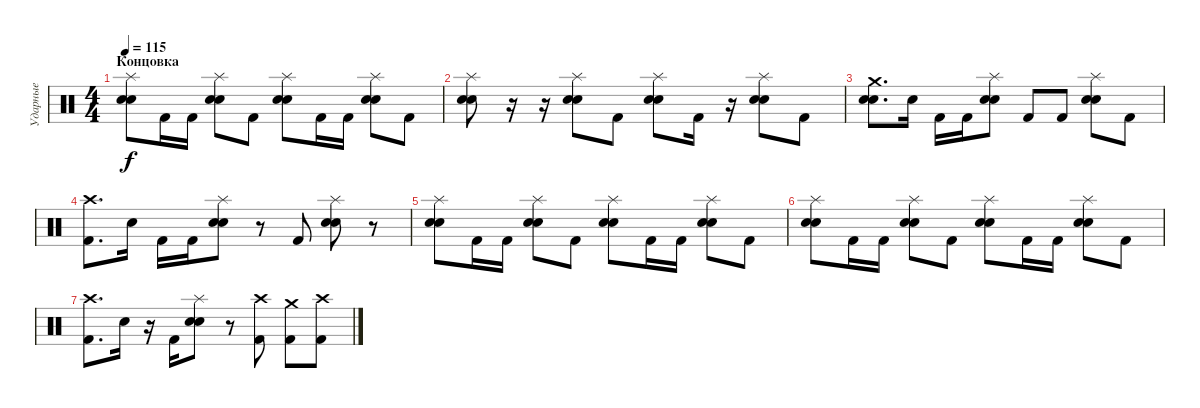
\track ("Ударные" "Ударные") {instrument percussion}
\staff {score}
\articulation defaults
\ts (4 4)
\section ("" "Концовка")
\tempo 115
\clef neutral
\ks c
("Splash (hit)" "Electric Snare (hit)" "Snare (hit) 2").8{dy f} "Kick (hit) 2".16 "Kick (hit) 2".16 ("Splash (hit)" "Electric Snare (hit)" "Snare (hit) 2").8 "Kick (hit) 2".8 ("Splash (hit)" "Electric Snare (hit)" "Snare (hit) 2").8 "Kick (hit) 2".16 "Kick (hit) 2".16 ("Splash (hit)" "Electric Snare (hit)" "Snare (hit) 2").8 "Kick (hit) 2".8 |
("Splash (hit)" "Electric Snare (hit)" "Snare (hit) 2").8 r.16 r.16 ("Splash (hit)" "Electric Snare (hit)" "Snare (hit) 2").8 "Kick (hit) 2".8 ("Splash (hit)" "Electric Snare (hit)" "Snare (hit) 2").8 "Kick (hit) 2".16 r.16 ("Splash (hit)" "Electric Snare (hit)" "Snare (hit) 2").8 "Kick (hit) 2".8 |
("Crash medium (hit)" "Electric Snare (hit)" "Snare (hit) 2").8{d} "Electric Snare (hit)".16 "Kick (hit) 2".16 "Kick (hit) 2".16 ("Splash (hit)" "Electric Snare (hit)" "Snare (hit) 2").8 "Kick (hit) 2".8 "Kick (hit) 2".8 ("Splash (hit)" "Electric Snare (hit)" "Snare (hit) 2").8 "Kick (hit) 2".8 |
("Crash high (hit)" "Kick (hit) 2").8{d} "Electric Snare (hit)".16 "Kick (hit) 2".16 "Kick (hit) 2".16 ("Splash (hit)" "Electric Snare (hit)" "Snare (hit) 2").8 r.8 "Kick (hit) 2".8 ("Splash (hit)" "Electric Snare (hit)" "Snare (hit) 2").8 r.8 |
("Splash (hit)" "Electric Snare (hit)" "Snare (hit) 2").8 "Kick (hit) 2".16 "Kick (hit) 2".16 ("Splash (hit)" "Electric Snare (hit)" "Snare (hit) 2").8 "Kick (hit) 2".8 ("Splash (hit)" "Electric Snare (hit)" "Snare (hit) 2").8 "Kick (hit) 2".16 "Kick (hit) 2".16 ("Splash (hit)" "Electric Snare (hit)" "Snare (hit) 2").8 "Kick (hit) 2".8 |
("Splash (hit)" "Electric Snare (hit)" "Snare (hit) 2").8 "Kick (hit) 2".16 "Kick (hit) 2".16 ("Splash (hit)" "Electric Snare (hit)" "Snare (hit) 2").8 "Kick (hit) 2".8 ("Splash (hit)" "Electric Snare (hit)" "Snare (hit) 2").8 "Kick (hit) 2".16 "Kick (hit) 2".16 ("Splash (hit)" "Electric Snare (hit)" "Snare (hit) 2").8 "Kick (hit) 2".8 |
("Crash high (hit)" "Kick (hit) 2").8{d} "Electric Snare (hit)".16 r.16 "Kick (hit) 2".16 ("Splash (hit)" "Electric Snare (hit)" "Snare (hit) 2").8 r.8 ("Crash high (hit)" "Kick (hit) 2").8 ("Crash medium (hit)" "Kick (hit) 2").8 ("Crash high (hit)" "Kick (hit) 2").8
